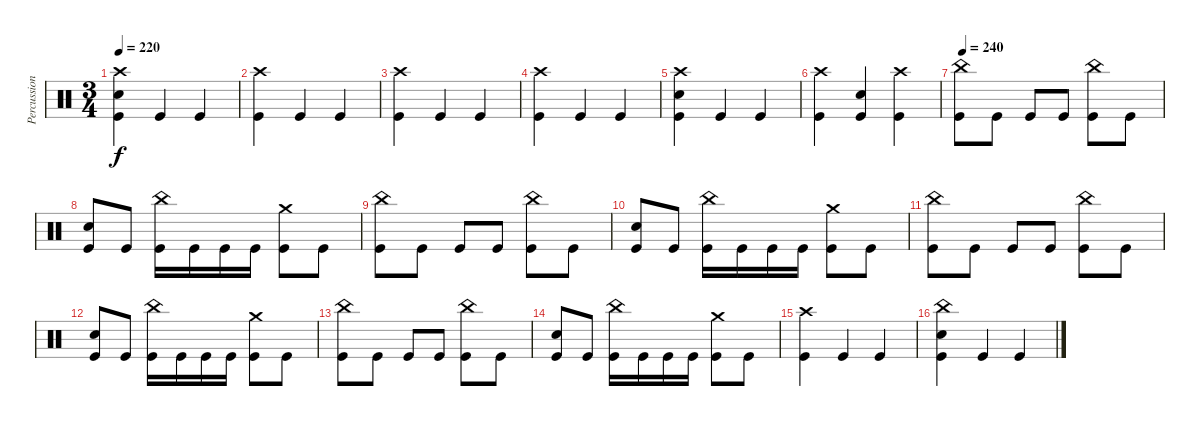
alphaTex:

\track ("Percussion" "Percussion") {instrument percussion}
\staff {score}
\articulation defaults
\ts (3 4)
\tempo 220
\clef neutral
\ks c
("Crash high (hit)" "Electric Snare (hit)" "Kick (hit)").4{dy f} "Kick (hit)".4 "Kick (hit)".4 |
("Crash high (hit)" "Kick (hit)").4 "Kick (hit)".4 "Kick (hit)".4 |
("Crash high (hit)" "Kick (hit)").4 "Kick (hit)".4 "Kick (hit)".4 |
("Crash high (hit)" "Kick (hit)").4 "Kick (hit)".4 "Kick (hit)".4 |
("Crash high (hit)" "Electric Snare (hit)" "Kick (hit)").4 "Kick (hit)".4 "Kick (hit)".4 |
("Crash high (hit)" "Kick (hit)").4 ("Electric Snare (hit)" "Kick (hit)").4 ("Crash high (hit)" "Kick (hit)").4 |
\tempo 240
("China (hit)" "Kick (hit)").8 "Kick (hit)".8 "Kick (hit)".8 "Kick (hit)".8 ("China (hit)" "Kick (hit)").8 "Kick (hit)".8 |
("Electric Snare (hit)" "Kick (hit)").8 "Kick (hit)".8 ("China (hit)" "Kick (hit)").16 "Kick (hit)".16 "Kick (hit)".16 "Kick (hit)".16 ("Crash medium (hit)" "Kick (hit)").8 "Kick (hit)".8 |
("China (hit)" "Kick (hit)").8 "Kick (hit)".8 "Kick (hit)".8 "Kick (hit)".8 ("China (hit)" "Kick (hit)").8 "Kick (hit)".8 |
("Electric Snare (hit)" "Kick (hit)").8 "Kick (hit)".8 ("China (hit)" "Kick (hit)").16 "Kick (hit)".16 "Kick (hit)".16 "Kick (hit)".16 ("Crash medium (hit)" "Kick (hit)").8 "Kick (hit)".8 |
("China (hit)" "Kick (hit)").8 "Kick (hit)".8 "Kick (hit)".8 "Kick (hit)".8 ("China (hit)" "Kick (hit)").8 "Kick (hit)".8 |
("Electric Snare (hit)" "Kick (hit)").8 "Kick (hit)".8 ("China (hit)" "Kick (hit)").16 "Kick (hit)".16 "Kick (hit)".16 "Kick (hit)".16 ("Crash medium (hit)" "Kick (hit)").8 "Kick (hit)".8 |
("China (hit)" "Kick (hit)").8 "Kick (hit)".8 "Kick (hit)".8 "Kick (hit)".8 ("China (hit)" "Kick (hit)").8 "Kick (hit)".8 |
("Electric Snare (hit)" "Kick (hit)").8 "Kick (hit)".8 ("China (hit)" "Kick (hit)").16 "Kick (hit)".16 "Kick (hit)".16 "Kick (hit)".16 ("Crash medium (hit)" "Kick (hit)").8 "Kick (hit)".8 |
("Crash high (hit)" "Kick (hit)").4 "Kick (hit)".4 "Kick (hit)".4 |
("China (hit)" "Electric Snare (hit)" "Kick (hit)").4 "Kick (hit)".4 "Kick (hit)".4
